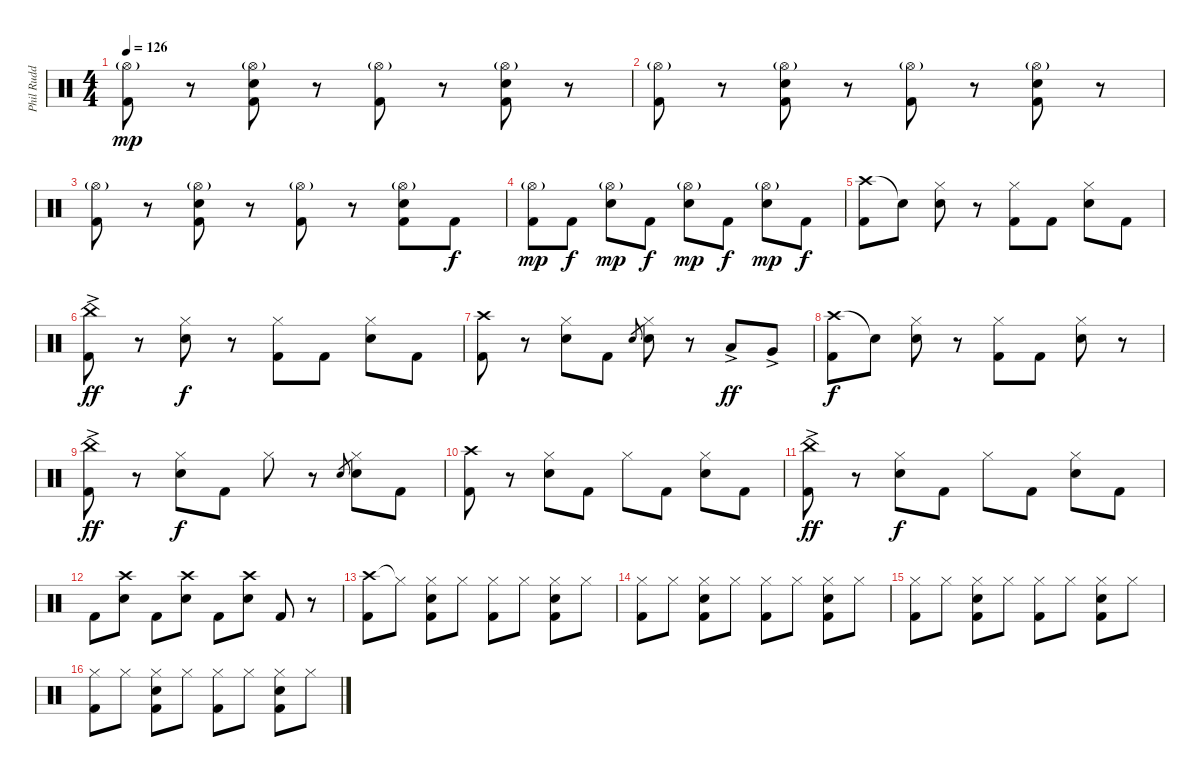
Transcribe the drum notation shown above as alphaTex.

\track ("Phil Rudd" "Phil Rudd") {instrument percussion}
\staff {score}
\articulation defaults
\ts (4 4)
\tempo 126
\clef neutral
\ks c
("Hi-Hat (open)"{g} "Kick (hit) 2").8{dy mp} r.8 ("Hi-Hat (open)"{g} "Snare (hit) 2" "Kick (hit) 2").8 r.8 ("Hi-Hat (open)"{g} "Kick (hit) 2").8 r.8 ("Hi-Hat (open)"{g} "Snare (hit) 2" "Kick (hit) 2").8 r.8 |
("Hi-Hat (open)"{g} "Kick (hit) 2").8 r.8 ("Hi-Hat (open)"{g} "Snare (hit) 2" "Kick (hit) 2").8 r.8 ("Hi-Hat (open)"{g} "Kick (hit) 2").8 r.8 ("Hi-Hat (open)"{g} "Snare (hit) 2" "Kick (hit) 2").8 r.8 |
("Hi-Hat (open)"{g} "Kick (hit) 2").8 r.8 ("Hi-Hat (open)"{g} "Snare (hit) 2" "Kick (hit) 2").8 r.8 ("Hi-Hat (open)"{g} "Kick (hit) 2").8 r.8 ("Hi-Hat (open)"{g} "Snare (hit) 2" "Kick (hit) 2").8 "Kick (hit) 2".8{dy f} |
("Hi-Hat (open)"{g} "Kick (hit) 2").8{dy mp} "Kick (hit) 2".8{dy f} ("Hi-Hat (open)"{g} "Snare (hit) 2").8{dy mp} "Kick (hit) 2".8{dy f} ("Hi-Hat (open)"{g} "Snare (hit) 2").8{dy mp} "Kick (hit) 2".8{dy f} ("Hi-Hat (open)"{g} "Snare (hit) 2").8{dy mp} "Kick (hit) 2".8{dy f} |
("Crash high (hit)" "Kick (hit) 2").8 "Snare (hit)"{t}.8 ("Hi-Hat (closed)" "Snare (hit) 2").8 r.8 ("Hi-Hat (closed)" "Kick (hit) 2").8 "Kick (hit) 2".8 ("Hi-Hat (closed)" "Snare (hit) 2").8 "Kick (hit) 2".8 |
("China (hit)"{ac} "Kick (hit) 2").8{dy ff} r.8 ("Hi-Hat (closed)" "Snare (hit) 2").8{dy f} r.8 ("Hi-Hat (closed)" "Kick (hit) 2").8 "Kick (hit) 2".8 ("Hi-Hat (closed)" "Snare (hit) 2").8 "Kick (hit) 2".8 |
("Crash high (hit)" "Kick (hit) 2").8 r.8 ("Hi-Hat (closed)" "Snare (hit) 2").8 "Kick (hit) 2".8 "Snare (hit) 2".8{gr} ("Hi-Hat (closed)" "Snare (hit) 2").8 r.8 "Low Tom (hit)"{ac}.8{dy ff} "Very Low Tom (hit)"{ac}.8 |
("Crash high (hit)" "Kick (hit) 2").8{dy f} "Snare (hit)"{t}.8 ("Hi-Hat (closed)" "Snare (hit) 2").8 r.8 ("Hi-Hat (closed)" "Kick (hit) 2").8 "Kick (hit) 2".8 ("Hi-Hat (closed)" "Snare (hit) 2").8 r.8 |
("China (hit)"{ac} "Kick (hit) 2").8{dy ff} r.8 ("Hi-Hat (closed)" "Snare (hit) 2").8{dy f} "Kick (hit) 2".8 "Hi-Hat (closed)".8 r.8 "Snare (hit) 2".8{gr} ("Hi-Hat (closed)" "Snare (hit) 2").8 "Kick (hit) 2".8 |
("Crash high (hit)" "Kick (hit) 2").8 r.8 ("Hi-Hat (closed)" "Snare (hit) 2").8 "Kick (hit) 2".8 "Hi-Hat (closed)".8 "Kick (hit) 2".8 ("Hi-Hat (closed)" "Snare (hit) 2").8 "Kick (hit) 2".8 |
("China (hit)"{ac} "Kick (hit) 2").8{dy ff} r.8 ("Hi-Hat (closed)" "Snare (hit) 2").8{dy f} "Kick (hit) 2".8 "Hi-Hat (closed)".8 "Kick (hit) 2".8 ("Hi-Hat (closed)" "Snare (hit) 2").8 "Kick (hit) 2".8 |
"Kick (hit) 2".8 ("Crash high (hit)" "Snare (hit) 2").8 "Kick (hit) 2".8 ("Crash high (hit)" "Snare (hit) 2").8 "Kick (hit) 2".8 ("Crash high (hit)" "Snare (hit) 2").8 "Kick (hit) 2".8 r.8 |
("Crash high (hit)" "Kick (hit) 2").8 "Hi-Hat (closed)"{t}.8 ("Hi-Hat (closed)" "Snare (hit) 2" "Kick (hit) 2").8 "Hi-Hat (closed)".8 ("Hi-Hat (closed)" "Kick (hit) 2").8 "Hi-Hat (closed)".8 ("Hi-Hat (closed)" "Snare (hit) 2" "Kick (hit) 2").8 "Hi-Hat (closed)".8 |
("Hi-Hat (closed)" "Kick (hit) 2").8 "Hi-Hat (closed)".8 ("Hi-Hat (closed)" "Snare (hit) 2" "Kick (hit) 2").8 "Hi-Hat (closed)".8 ("Hi-Hat (closed)" "Kick (hit) 2").8 "Hi-Hat (closed)".8 ("Hi-Hat (closed)" "Snare (hit) 2" "Kick (hit) 2").8 "Hi-Hat (closed)".8 |
("Hi-Hat (closed)" "Kick (hit) 2").8 "Hi-Hat (closed)".8 ("Hi-Hat (closed)" "Snare (hit) 2" "Kick (hit) 2").8 "Hi-Hat (closed)".8 ("Hi-Hat (closed)" "Kick (hit) 2").8 "Hi-Hat (closed)".8 ("Hi-Hat (closed)" "Snare (hit) 2" "Kick (hit) 2").8 "Hi-Hat (closed)".8 |
("Hi-Hat (closed)" "Kick (hit) 2").8 "Hi-Hat (closed)".8 ("Hi-Hat (closed)" "Snare (hit) 2" "Kick (hit) 2").8 "Hi-Hat (closed)".8 ("Hi-Hat (closed)" "Kick (hit) 2").8 "Hi-Hat (closed)".8 ("Hi-Hat (closed)" "Snare (hit) 2" "Kick (hit) 2").8 "Hi-Hat (closed)".8
